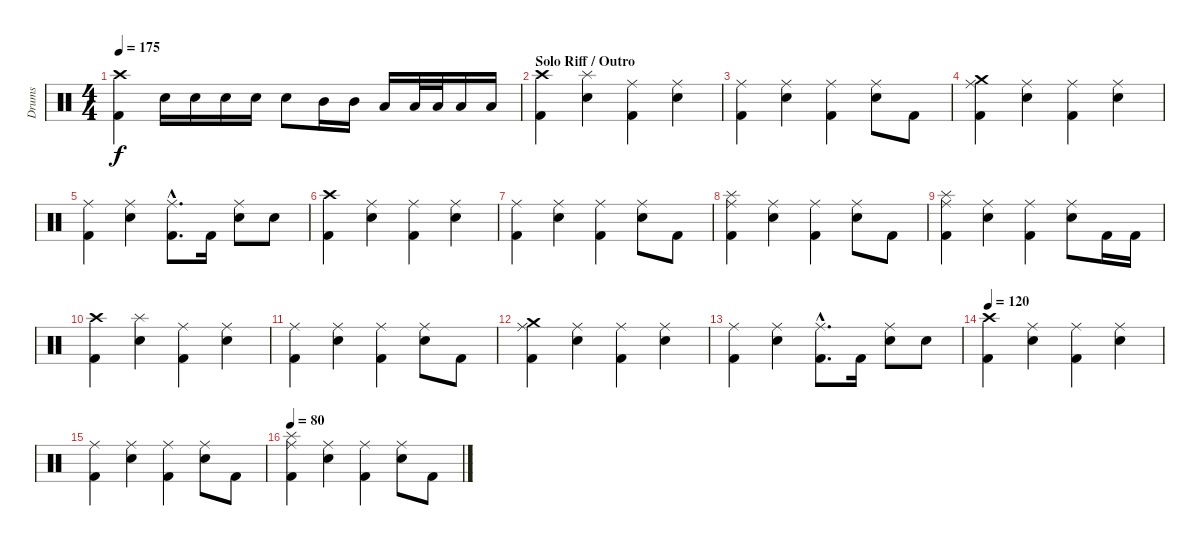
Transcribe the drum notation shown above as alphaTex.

\track ("Drums" "Drums") {instrument percussion}
\staff {score}
\articulation defaults
\ts (4 4)
\tempo 175
\clef neutral
\ks c
("Crash high (hit)" "Kick (hit) 2").4{dy f} "Snare (hit) 2".16 "Snare (hit) 2".16 "Snare (hit) 2".16 "Snare (hit) 2".16 "Snare (hit) 2".8 "Mid Tom (hit)".16 "Mid Tom (hit)".16 "Low Tom (hit)".16 "Low Tom (hit)".32 "Low Tom (hit)".32 "Low Tom (hit)".16 "Low Tom (hit)".16 |
\section ("" "Solo Riff / Outro")
("Crash high (hit)" "Kick (hit) 2").4 ("Splash (hit)" "Snare (hit) 2").4 ("Ride (middle)" "Kick (hit) 2").4 ("Ride (middle)" "Snare (hit) 2").4 |
("Ride (middle)" "Kick (hit) 2").4 ("Ride (middle)" "Snare (hit) 2").4 ("Ride (middle)" "Kick (hit) 2").4 ("Ride (middle)" "Snare (hit) 2").8 "Kick (hit) 2".8 |
("Crash medium (hit)" "Ride (middle)" "Kick (hit) 2").4 ("Ride (middle)" "Snare (hit) 2").4 ("Ride (middle)" "Kick (hit) 2").4 ("Ride (middle)" "Snare (hit) 2").4 |
("Ride (middle)" "Kick (hit) 2").4 ("Ride (middle)" "Snare (hit) 2").4 ("Ride (middle)"{hac} "Kick (hit) 2"{hac}).8{d} "Kick (hit) 2".16 ("Ride (middle)" "Snare (hit) 2").8 "Snare (hit) 2".8 |
("Crash high (hit)" "Kick (hit) 2").4 ("Ride (middle)" "Snare (hit) 2").4 ("Ride (middle)" "Kick (hit) 2").4 ("Ride (middle)" "Snare (hit) 2").4 |
("Ride (middle)" "Kick (hit) 2").4 ("Ride (middle)" "Snare (hit) 2").4 ("Ride (middle)" "Kick (hit) 2").4 ("Ride (middle)" "Snare (hit) 2").8 "Kick (hit) 2".8 |
("Splash (hit)" "Ride (middle)" "Kick (hit) 2").4 ("Ride (middle)" "Snare (hit) 2").4 ("Ride (middle)" "Kick (hit) 2").4 ("Ride (middle)" "Snare (hit) 2").8 "Kick (hit) 2".8 |
("Splash (hit)" "Ride (middle)" "Kick (hit) 2").4 ("Ride (middle)" "Snare (hit) 2").4 ("Ride (middle)" "Kick (hit) 2").4 ("Ride (middle)" "Snare (hit) 2").8 "Kick (hit) 2".16 "Kick (hit) 2".16 |
("Crash high (hit)" "Kick (hit) 2").4 ("Splash (hit)" "Snare (hit) 2").4 ("Ride (middle)" "Kick (hit) 2").4 ("Ride (middle)" "Snare (hit) 2").4 |
("Ride (middle)" "Kick (hit) 2").4 ("Ride (middle)" "Snare (hit) 2").4 ("Ride (middle)" "Kick (hit) 2").4 ("Ride (middle)" "Snare (hit) 2").8 "Kick (hit) 2".8 |
("Crash medium (hit)" "Ride (middle)" "Kick (hit) 2").4 ("Ride (middle)" "Snare (hit) 2").4 ("Ride (middle)" "Kick (hit) 2").4 ("Ride (middle)" "Snare (hit) 2").4 |
("Ride (middle)" "Kick (hit) 2").4 ("Ride (middle)" "Snare (hit) 2").4 ("Ride (middle)"{hac} "Kick (hit) 2"{hac}).8{d} "Kick (hit) 2".16 ("Ride (middle)" "Snare (hit) 2").8 "Snare (hit) 2".8 |
\tempo 120
("Crash high (hit)" "Kick (hit) 2").4 ("Ride (middle)" "Snare (hit) 2").4 ("Ride (middle)" "Kick (hit) 2").4 ("Ride (middle)" "Snare (hit) 2").4 |
("Ride (middle)" "Kick (hit) 2").4 ("Ride (middle)" "Snare (hit) 2").4 ("Ride (middle)" "Kick (hit) 2").4 ("Ride (middle)" "Snare (hit) 2").8 "Kick (hit) 2".8 |
\tempo 80
("Splash (hit)" "Ride (middle)" "Kick (hit) 2").4 ("Ride (middle)" "Snare (hit) 2").4 ("Ride (middle)" "Kick (hit) 2").4 ("Ride (middle)" "Snare (hit) 2").8 "Kick (hit) 2".8
